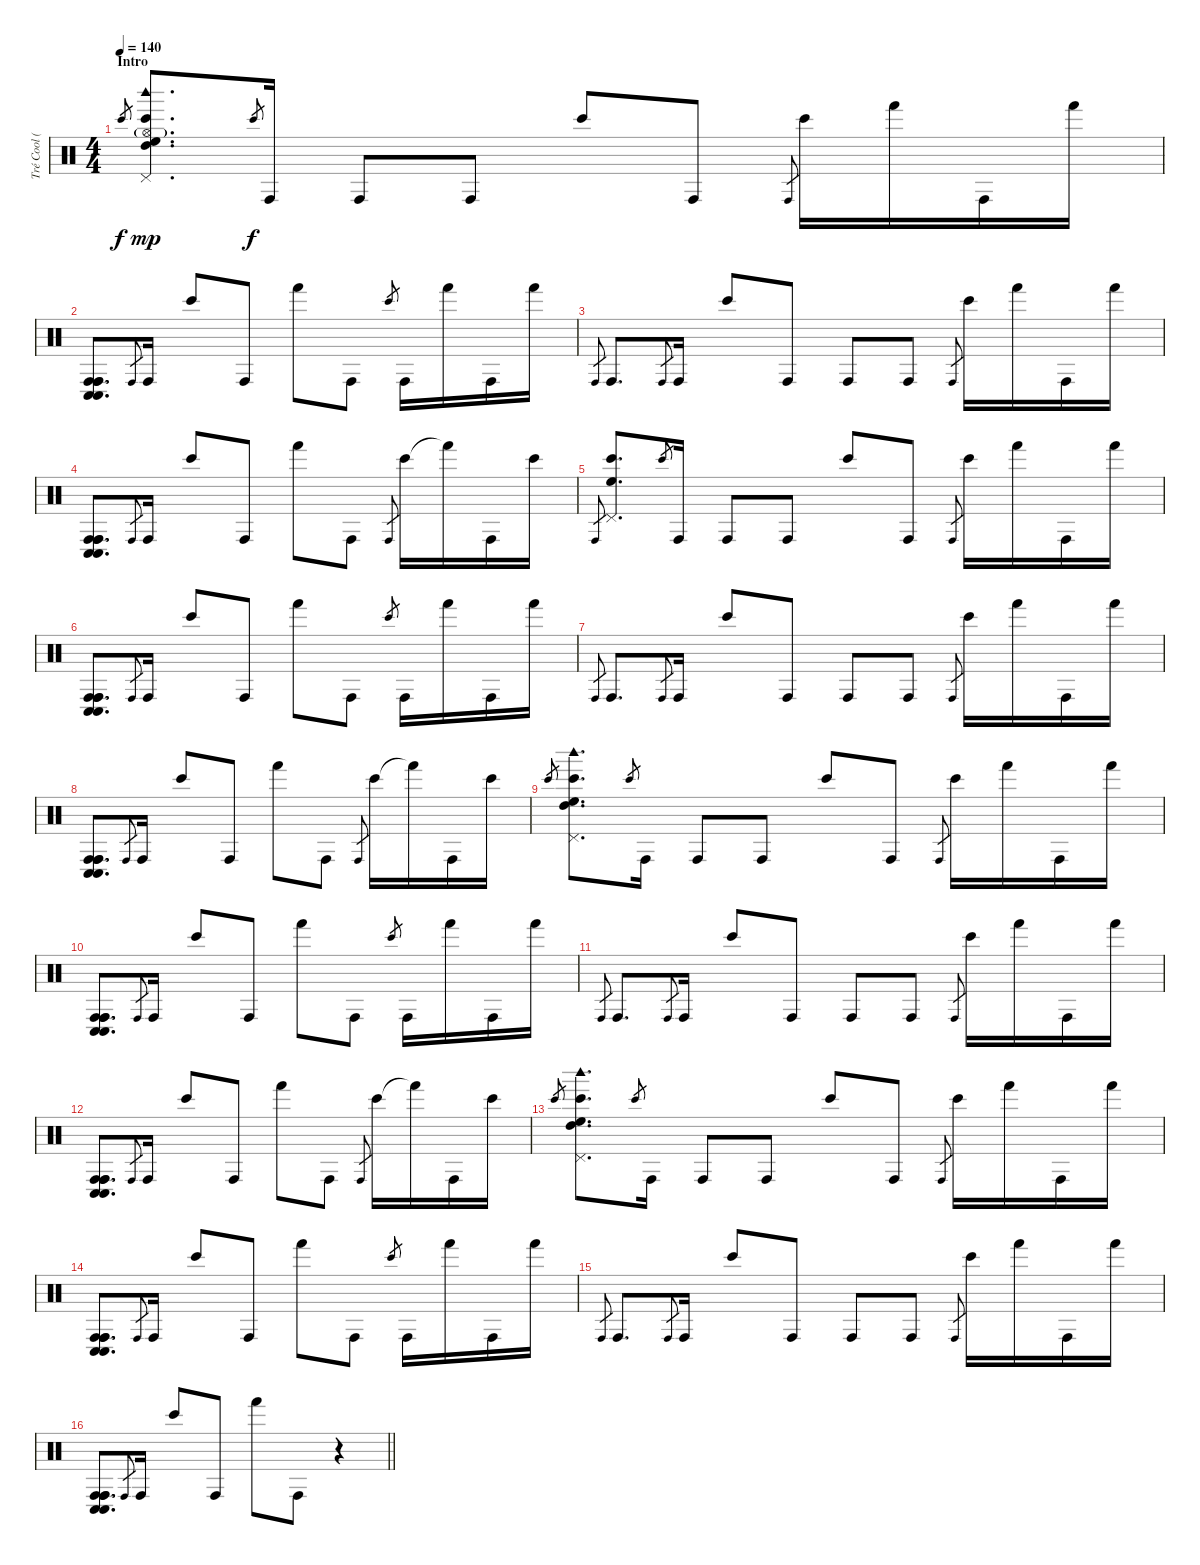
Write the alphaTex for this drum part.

\track ("Tré Cool (Bongos)" "Tré Cool (") {instrument percussion}
\staff {score}
\articulation defaults
\ts (4 4)
\section ("" "Intro")
\tempo 140
\tempo 105
\tempo 140
\clef neutral
\ks c "Bongo High (hit)".8{gr dy f}
("Bongo High (hit)" "High Floor Tom (hit)" "Pedal Hi-Hat (hit)" "High Tom (hit)" "Woodblock high (hit)" "Hi-Hat (open)"{g}).8{d dy mp} "Bongo High (hit)".8{gr dy f} "Conga high (hit)".16 "Conga high (hit)".8 "Conga high (hit)".8 "Bongo High (hit)".8 "Conga high (hit)".8 "Conga high (hit)".8{gr} "Bongo High (hit)".16 "Hand (hit)".16 "Conga high (hit)".16 "Hand (hit)".16 |
("Conga low (hit)" "Conga low (hit)" "Conga high (hit)" "Conga high (hit)" "Conga high (hit)").8{d} "Conga high (hit)".8{gr} "Conga high (hit)".16 "Bongo High (hit)".8 "Conga high (hit)".8 "Hand (hit)".8 "Conga high (hit)".8 "Bongo High (hit)".8{gr} "Conga high (hit)".16 "Hand (hit)".16 "Conga high (hit)".16 "Hand (hit)".16 |
"Conga high (hit)".8{gr} "Conga high (hit)".8{d} "Conga high (hit)".8{gr} "Conga high (hit)".16 "Bongo High (hit)".8 "Conga high (hit)".8 "Conga high (hit)".8 "Conga high (hit)".8 "Conga high (hit)".8{gr} "Bongo High (hit)".16 "Hand (hit)".16 "Conga high (hit)".16 "Hand (hit)".16 |
("Conga low (hit)" "Conga low (hit)" "Conga high (hit)" "Conga high (hit)" "Conga high (hit)").8{d} "Conga high (hit)".8{gr} "Conga high (hit)".16 "Bongo High (hit)".8 "Conga high (hit)".8 "Hand (hit)".8 "Conga high (hit)".8 "Conga high (hit)".8{gr} "Bongo High (hit)".16 "Hand (hit)"{t}.16 "Conga high (hit)".16 "Bongo High (hit)".16 |
"Conga high (hit)".8{gr} ("Bongo High (hit)" "High Floor Tom (hit)" "Pedal Hi-Hat (hit)").8{d} "Bongo High (hit)".8{gr} "Conga high (hit)".16 "Conga high (hit)".8 "Conga high (hit)".8 "Bongo High (hit)".8 "Conga high (hit)".8 "Conga high (hit)".8{gr} "Bongo High (hit)".16 "Hand (hit)".16 "Conga high (hit)".16 "Hand (hit)".16 |
("Conga low (hit)" "Conga low (hit)" "Conga high (hit)" "Conga high (hit)" "Conga high (hit)").8{d} "Conga high (hit)".8{gr} "Conga high (hit)".16 "Bongo High (hit)".8 "Conga high (hit)".8 "Hand (hit)".8 "Conga high (hit)".8 "Bongo High (hit)".8{gr} "Conga high (hit)".16 "Hand (hit)".16 "Conga high (hit)".16 "Hand (hit)".16 |
"Conga high (hit)".8{gr} "Conga high (hit)".8{d} "Conga high (hit)".8{gr} "Conga high (hit)".16 "Bongo High (hit)".8 "Conga high (hit)".8 "Conga high (hit)".8 "Conga high (hit)".8 "Conga high (hit)".8{gr} "Bongo High (hit)".16 "Hand (hit)".16 "Conga high (hit)".16 "Hand (hit)".16 |
("Conga low (hit)" "Conga low (hit)" "Conga high (hit)" "Conga high (hit)" "Conga high (hit)").8{d} "Conga high (hit)".8{gr} "Conga high (hit)".16 "Bongo High (hit)".8 "Conga high (hit)".8 "Hand (hit)".8 "Conga high (hit)".8 "Conga high (hit)".8{gr} "Bongo High (hit)".16 "Hand (hit)"{t}.16 "Conga high (hit)".16 "Bongo High (hit)".16 |
"Bongo High (hit)".8{gr} ("Bongo High (hit)" "High Floor Tom (hit)" "Pedal Hi-Hat (hit)" "High Tom (hit)" "Woodblock high (hit)").8{d} "Bongo High (hit)".8{gr} "Conga high (hit)".16 "Conga high (hit)".8 "Conga high (hit)".8 "Bongo High (hit)".8 "Conga high (hit)".8 "Conga high (hit)".8{gr} "Bongo High (hit)".16 "Hand (hit)".16 "Conga high (hit)".16 "Hand (hit)".16 |
("Conga low (hit)" "Conga low (hit)" "Conga high (hit)" "Conga high (hit)" "Conga high (hit)").8{d} "Conga high (hit)".8{gr} "Conga high (hit)".16 "Bongo High (hit)".8 "Conga high (hit)".8 "Hand (hit)".8 "Conga high (hit)".8 "Bongo High (hit)".8{gr} "Conga high (hit)".16 "Hand (hit)".16 "Conga high (hit)".16 "Hand (hit)".16 |
"Conga high (hit)".8{gr} "Conga high (hit)".8{d} "Conga high (hit)".8{gr} "Conga high (hit)".16 "Bongo High (hit)".8 "Conga high (hit)".8 "Conga high (hit)".8 "Conga high (hit)".8 "Conga high (hit)".8{gr} "Bongo High (hit)".16 "Hand (hit)".16 "Conga high (hit)".16 "Hand (hit)".16 |
("Conga low (hit)" "Conga low (hit)" "Conga high (hit)" "Conga high (hit)" "Conga high (hit)").8{d} "Conga high (hit)".8{gr} "Conga high (hit)".16 "Bongo High (hit)".8 "Conga high (hit)".8 "Hand (hit)".8 "Conga high (hit)".8 "Conga high (hit)".8{gr} "Bongo High (hit)".16 "Hand (hit)"{t}.16 "Conga high (hit)".16 "Bongo High (hit)".16 |
"Bongo High (hit)".8{gr} ("Bongo High (hit)" "High Floor Tom (hit)" "Pedal Hi-Hat (hit)" "High Tom (hit)" "Woodblock high (hit)").8{d} "Bongo High (hit)".8{gr} "Conga high (hit)".16 "Conga high (hit)".8 "Conga high (hit)".8 "Bongo High (hit)".8 "Conga high (hit)".8 "Conga high (hit)".8{gr} "Bongo High (hit)".16 "Hand (hit)".16 "Conga high (hit)".16 "Hand (hit)".16 |
("Conga low (hit)" "Conga low (hit)" "Conga high (hit)" "Conga high (hit)" "Conga high (hit)").8{d} "Conga high (hit)".8{gr} "Conga high (hit)".16 "Bongo High (hit)".8 "Conga high (hit)".8 "Hand (hit)".8 "Conga high (hit)".8 "Bongo High (hit)".8{gr} "Conga high (hit)".16 "Hand (hit)".16 "Conga high (hit)".16 "Hand (hit)".16 |
"Conga high (hit)".8{gr} "Conga high (hit)".8{d} "Conga high (hit)".8{gr} "Conga high (hit)".16 "Bongo High (hit)".8 "Conga high (hit)".8 "Conga high (hit)".8 "Conga high (hit)".8 "Conga high (hit)".8{gr} "Bongo High (hit)".16 "Hand (hit)".16 "Conga high (hit)".16 "Hand (hit)".16 |
\barLineRight lightlight
("Conga low (hit)" "Conga low (hit)" "Conga high (hit)" "Conga high (hit)" "Conga high (hit)").8{d} "Conga high (hit)".8{gr} "Conga high (hit)".16 "Bongo High (hit)".8 "Conga high (hit)".8 "Hand (hit)".8 "Conga high (hit)".8 r.4
